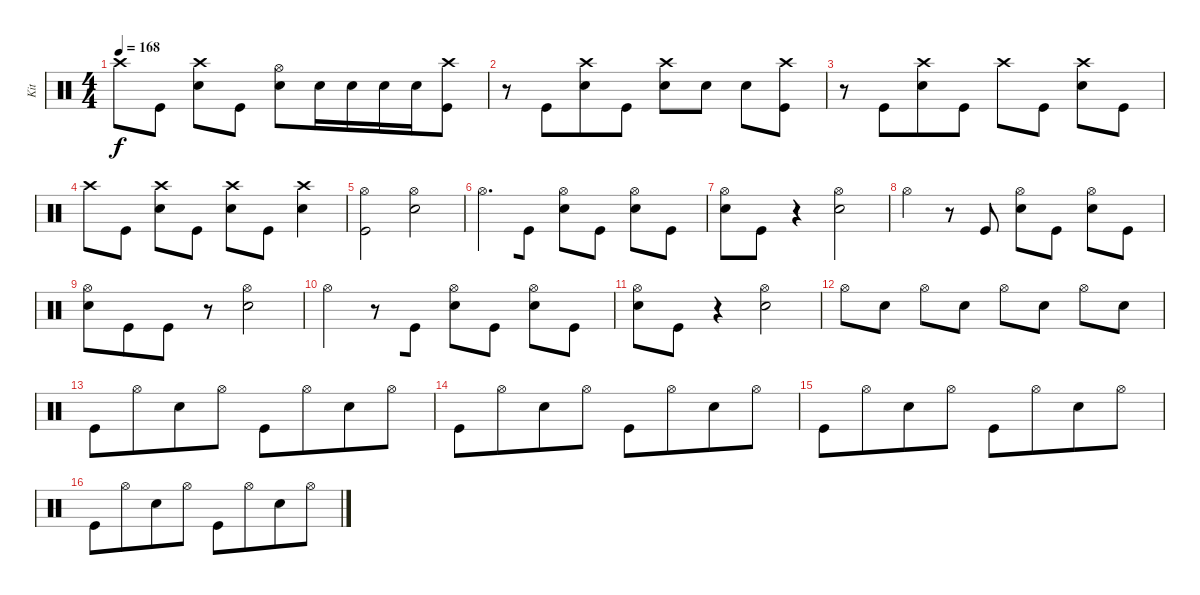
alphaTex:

\track ("Kit" "Kit") {instrument percussion}
\staff {score}
\articulation defaults
\ts (4 4)
\tempo 168
\clef neutral
\ks c "Crash high (hit)".8{dy f} "Kick (hit)".8
("Crash high (hit)" "Electric Snare (hit)").8 "Kick (hit)".8 ("Hi-Hat (open)" "Electric Snare (hit)").8 "Electric Snare (hit)".16 "Electric Snare (hit)".16{beam merge} "Electric Snare (hit)".16{beam merge} "Electric Snare (hit)".16{beam merge} ("Crash high (hit)" "Kick (hit)").8 |
r.8 "Kick (hit)".8{beam merge} ("Crash high (hit)" "Electric Snare (hit)").8{beam merge} "Kick (hit)".8 ("Crash high (hit)" "Electric Snare (hit)").8 "Electric Snare (hit)".8 "Electric Snare (hit)".8 ("Crash high (hit)" "Kick (hit)").8 |
r.8{beam merge} "Kick (hit)".8{beam merge} ("Crash high (hit)" "Electric Snare (hit)").8 "Kick (hit)".8 "Crash high (hit)".8{beam merge} "Kick (hit)".8 ("Crash high (hit)" "Electric Snare (hit)").8{beam merge} "Kick (hit)".8 |
"Crash high (hit)".8 "Kick (hit)".8 ("Crash high (hit)" "Electric Snare (hit)").8 "Kick (hit)".8 ("Crash high (hit)" "Electric Snare (hit)").8 "Kick (hit)".8 ("Crash high (hit)" "Electric Snare (hit)").4 |
("Hi-Hat (open)" "Kick (hit)").2 ("Hi-Hat (open)" "Electric Snare (hit)").2 |
"Hi-Hat (open)".4{d beam merge} "Kick (hit)".8 ("Hi-Hat (open)" "Electric Snare (hit)").8 "Kick (hit)".8 ("Hi-Hat (open)" "Electric Snare (hit)").8 "Kick (hit)".8 |
("Hi-Hat (open)" "Electric Snare (hit)").8{beam merge} "Kick (hit)".8{beam merge} r.4 ("Hi-Hat (open)" "Electric Snare (hit)").2 |
"Hi-Hat (open)".4 r.8{beam merge} "Kick (hit)".8 ("Hi-Hat (open)" "Electric Snare (hit)").8{beam merge} "Kick (hit)".8 ("Hi-Hat (open)" "Electric Snare (hit)").8{beam merge} "Kick (hit)".8 |
("Hi-Hat (open)" "Electric Snare (hit)").8 "Kick (hit)".8{beam merge} "Kick (hit)".8 r.8 ("Hi-Hat (open)" "Electric Snare (hit)").2 |
"Hi-Hat (open)".4{beam merge} r.8 "Kick (hit)".8 ("Hi-Hat (open)" "Electric Snare (hit)").8 "Kick (hit)".8 ("Hi-Hat (open)" "Electric Snare (hit)").8 "Kick (hit)".8 |
("Hi-Hat (open)" "Electric Snare (hit)").8 "Kick (hit)".8 r.4{beam merge} ("Hi-Hat (open)" "Electric Snare (hit)").2 |
"Hi-Hat (open)".8{beam merge} "Electric Snare (hit)".8 "Hi-Hat (open)".8{beam merge} "Electric Snare (hit)".8 "Hi-Hat (open)".8{beam merge} "Electric Snare (hit)".8 "Hi-Hat (open)".8{beam merge} "Electric Snare (hit)".8 |
"Kick (hit)".8 "Hi-Hat (open)".8{beam merge} "Electric Snare (hit)".8 "Hi-Hat (open)".8 "Kick (hit)".8 "Hi-Hat (open)".8{beam merge} "Electric Snare (hit)".8 "Hi-Hat (open)".8 |
"Kick (hit)".8 "Hi-Hat (open)".8{beam merge} "Electric Snare (hit)".8 "Hi-Hat (open)".8 "Kick (hit)".8 "Hi-Hat (open)".8{beam merge} "Electric Snare (hit)".8 "Hi-Hat (open)".8 |
"Kick (hit)".8 "Hi-Hat (open)".8{beam merge} "Electric Snare (hit)".8 "Hi-Hat (open)".8 "Kick (hit)".8 "Hi-Hat (open)".8{beam merge} "Electric Snare (hit)".8 "Hi-Hat (open)".8 |
"Kick (hit)".8 "Hi-Hat (open)".8{beam merge} "Electric Snare (hit)".8 "Hi-Hat (open)".8 "Kick (hit)".8 "Hi-Hat (open)".8{beam merge} "Electric Snare (hit)".8 "Hi-Hat (open)".8
